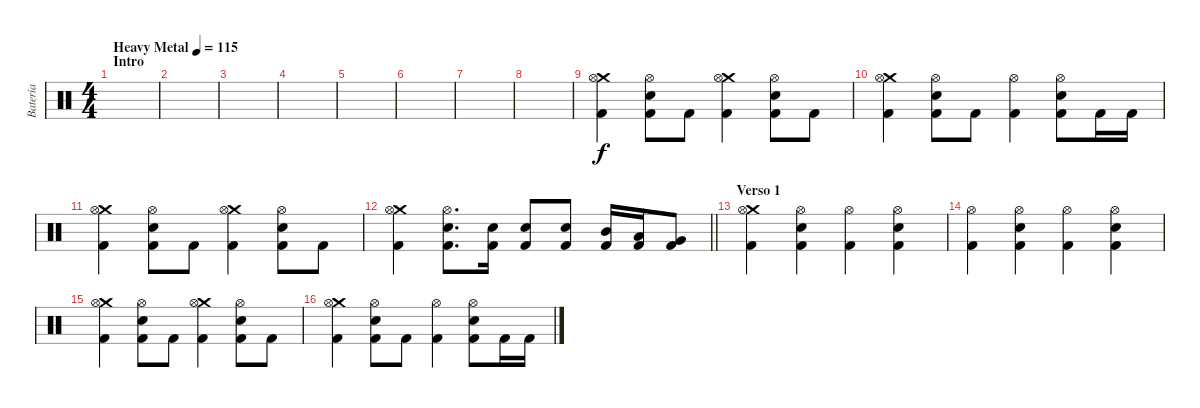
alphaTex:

\track ("Batería" "Batería") {instrument percussion}
\staff {score}
\articulation defaults
\ts (4 4)
\section ("" "Intro")
\tempo (115 "Heavy Metal")
\clef neutral
\ks c
|
|
|
|
|
|
|
|
("Crash medium (hit)" "Hi-Hat (open)" "Kick (hit) 2").4 ("Hi-Hat (open)" "Snare (hit) 2" "Kick (hit) 2").8 "Kick (hit) 2".8 ("Crash medium (hit)" "Hi-Hat (open)" "Kick (hit) 2").4 ("Hi-Hat (open)" "Snare (hit) 2" "Kick (hit) 2").8 "Kick (hit) 2".8 |
("Crash medium (hit)" "Hi-Hat (open)" "Kick (hit) 2").4 ("Hi-Hat (open)" "Snare (hit) 2" "Kick (hit) 2").8 "Kick (hit) 2".8 ("Hi-Hat (open)" "Kick (hit) 2").4 ("Hi-Hat (open)" "Snare (hit) 2" "Kick (hit) 2").8 "Kick (hit) 2".16 "Kick (hit) 2".16 |
("Crash medium (hit)" "Hi-Hat (open)" "Kick (hit) 2").4 ("Hi-Hat (open)" "Snare (hit) 2" "Kick (hit) 2").8 "Kick (hit) 2".8 ("Crash medium (hit)" "Hi-Hat (open)" "Kick (hit) 2").4 ("Hi-Hat (open)" "Snare (hit) 2" "Kick (hit) 2").8 "Kick (hit) 2".8 |
\barLineRight lightlight
("Crash medium (hit)" "Hi-Hat (open)" "Kick (hit) 2").4 ("Hi-Hat (open)" "Snare (hit) 2" "Kick (hit) 2").8{d} ("Snare (hit) 2" "Kick (hit) 2").16 ("Snare (hit) 2" "Kick (hit) 2").8 ("Snare (hit) 2" "Kick (hit) 2").8 ("Mid Tom (hit)" "Kick (hit) 2").16 ("Low Tom (hit)" "Kick (hit) 2").16 ("Very Low Tom (hit)" "Kick (hit) 2").8 |
\section ("" "Verso 1")
("Crash medium (hit)" "Hi-Hat (open)" "Kick (hit) 2").4 ("Hi-Hat (open)" "Snare (hit) 2" "Kick (hit) 2").4 ("Hi-Hat (open)" "Kick (hit) 2").4 ("Hi-Hat (open)" "Snare (hit) 2" "Kick (hit) 2").4 |
("Hi-Hat (open)" "Kick (hit) 2").4 ("Hi-Hat (open)" "Snare (hit) 2" "Kick (hit) 2").4 ("Hi-Hat (open)" "Kick (hit) 2").4 ("Hi-Hat (open)" "Snare (hit) 2" "Kick (hit) 2").4 |
("Crash medium (hit)" "Hi-Hat (open)" "Kick (hit) 2").4 ("Hi-Hat (open)" "Snare (hit) 2" "Kick (hit) 2").8 "Kick (hit) 2".8 ("Crash medium (hit)" "Hi-Hat (open)" "Kick (hit) 2").4 ("Hi-Hat (open)" "Snare (hit) 2" "Kick (hit) 2").8 "Kick (hit) 2".8 |
("Crash medium (hit)" "Hi-Hat (open)" "Kick (hit) 2").4 ("Hi-Hat (open)" "Snare (hit) 2" "Kick (hit) 2").8 "Kick (hit) 2".8 ("Hi-Hat (open)" "Kick (hit) 2").4 ("Hi-Hat (open)" "Snare (hit) 2" "Kick (hit) 2").8 "Kick (hit) 2".16 "Kick (hit) 2".16
